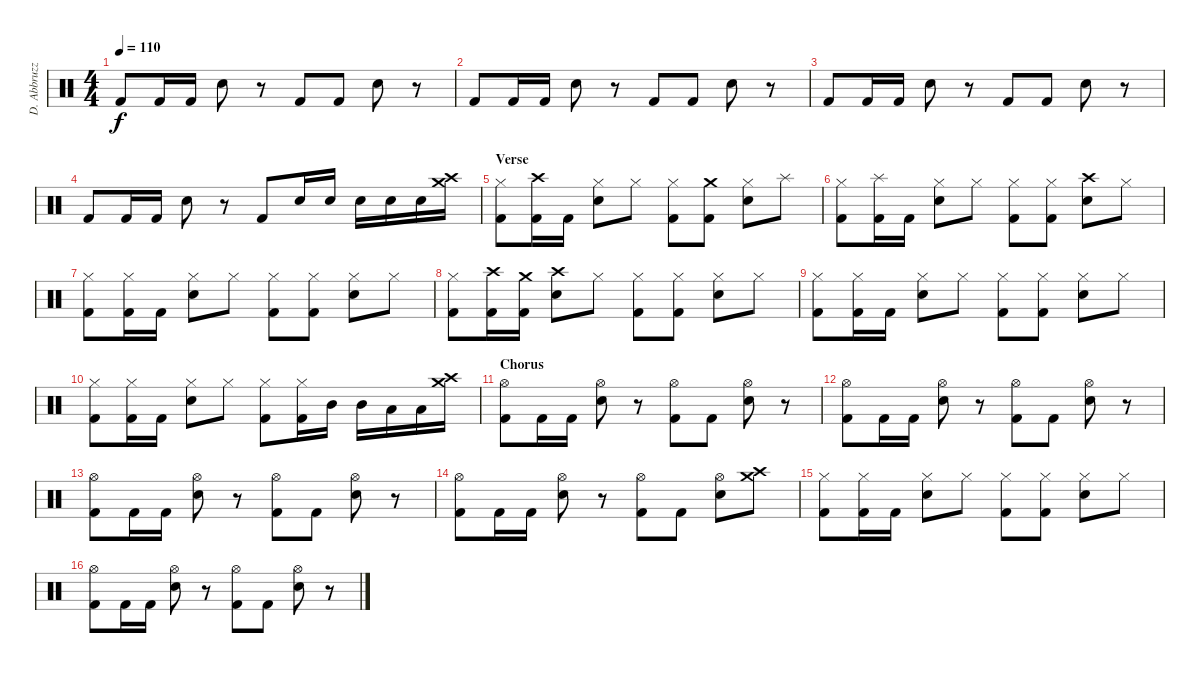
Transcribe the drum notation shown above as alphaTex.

\track ("D. Abbruzzese" "D. Abbruzz") {instrument percussion}
\staff {score}
\articulation defaults
\ts (4 4)
\tempo 110
\clef neutral
\ks c "Kick (hit) 2".8{dy f} "Kick (hit) 2".16 "Kick (hit) 2".16 "Snare (hit) 2".8
r.8 "Kick (hit) 2".8 "Kick (hit) 2".8 "Snare (hit) 2".8 r.8 |
"Kick (hit) 2".8 "Kick (hit) 2".16 "Kick (hit) 2".16 "Snare (hit) 2".8 r.8 "Kick (hit) 2".8 "Kick (hit) 2".8 "Snare (hit) 2".8 r.8 |
"Kick (hit) 2".8 "Kick (hit) 2".16 "Kick (hit) 2".16 "Snare (hit) 2".8 r.8 "Kick (hit) 2".8 "Kick (hit) 2".8 "Snare (hit) 2".8 r.8 |
"Kick (hit) 2".8 "Kick (hit) 2".16 "Kick (hit) 2".16 "Snare (hit) 2".8 r.8 "Kick (hit) 2".8 "Snare (hit) 2".16 "Snare (hit) 2".16 "Snare (hit) 2".16 "Snare (hit) 2".16 "Snare (hit) 2".16 ("Crash high (hit)" "Crash medium (hit)").16 |
\section ("" "Verse")
("Hi-Hat (closed)" "Kick (hit) 2").8 ("Crash high (hit)" "Kick (hit) 2").16 "Kick (hit) 2".16 ("Hi-Hat (closed)" "Snare (hit) 2").8 "Hi-Hat (closed)".8 ("Hi-Hat (closed)" "Kick (hit) 2").8 ("Crash medium (hit)" "Kick (hit) 2").8 ("Hi-Hat (closed)" "Snare (hit) 2").8 "Splash (hit)".8 |
("Hi-Hat (closed)" "Kick (hit) 2").8 ("Splash (hit)" "Kick (hit) 2").16 "Kick (hit) 2".16 ("Hi-Hat (closed)" "Snare (hit) 2").8 "Hi-Hat (closed)".8 ("Hi-Hat (closed)" "Kick (hit) 2").8 ("Hi-Hat (closed)" "Kick (hit) 2").8 ("Crash high (hit)" "Snare (hit) 2").8 "Hi-Hat (closed)".8 |
("Hi-Hat (closed)" "Kick (hit) 2").8 ("Hi-Hat (closed)" "Kick (hit) 2").16 "Kick (hit) 2".16 ("Hi-Hat (closed)" "Snare (hit) 2").8 "Hi-Hat (closed)".8 ("Hi-Hat (closed)" "Kick (hit) 2").8 ("Hi-Hat (closed)" "Kick (hit) 2").8 ("Hi-Hat (closed)" "Snare (hit) 2").8 "Hi-Hat (closed)".8 |
("Hi-Hat (closed)" "Kick (hit) 2").8 ("Crash high (hit)" "Kick (hit) 2").16 ("Crash medium (hit)" "Kick (hit) 2").16 ("Crash high (hit)" "Snare (hit) 2").8 "Hi-Hat (closed)".8 ("Hi-Hat (closed)" "Kick (hit) 2").8 ("Hi-Hat (closed)" "Kick (hit) 2").8 ("Hi-Hat (closed)" "Snare (hit) 2").8 "Hi-Hat (closed)".8 |
("Hi-Hat (closed)" "Kick (hit) 2").8 ("Hi-Hat (closed)" "Kick (hit) 2").16 "Kick (hit) 2".16 ("Hi-Hat (closed)" "Snare (hit) 2").8 "Hi-Hat (closed)".8 ("Hi-Hat (closed)" "Kick (hit) 2").8 ("Hi-Hat (closed)" "Kick (hit) 2").8 ("Hi-Hat (closed)" "Snare (hit) 2").8 "Hi-Hat (closed)".8 |
("Hi-Hat (closed)" "Kick (hit) 2").8 ("Hi-Hat (closed)" "Kick (hit) 2").16 "Kick (hit) 2".16 ("Hi-Hat (closed)" "Snare (hit) 2").8 "Hi-Hat (closed)".8 ("Hi-Hat (closed)" "Kick (hit) 2").8 ("Hi-Hat (closed)" "Kick (hit) 2").16 "Mid Tom (hit)".16 "Mid Tom (hit)".16 "Low Tom (hit)".16 "Low Tom (hit)".16 ("Crash medium (hit)" "Crash high (hit)").16 |
\section ("" "Chorus")
("Hi-Hat (open)" "Kick (hit) 2").8 "Kick (hit) 2".16 "Kick (hit) 2".16 ("Hi-Hat (open)" "Snare (hit) 2").8 r.8 ("Hi-Hat (open)" "Kick (hit) 2").8 "Kick (hit) 2".8 ("Hi-Hat (open)" "Snare (hit) 2").8 r.8 |
("Hi-Hat (open)" "Kick (hit) 2").8 "Kick (hit) 2".16 "Kick (hit) 2".16 ("Hi-Hat (open)" "Snare (hit) 2").8 r.8 ("Hi-Hat (open)" "Kick (hit) 2").8 "Kick (hit) 2".8 ("Hi-Hat (open)" "Snare (hit) 2").8 r.8 |
("Hi-Hat (open)" "Kick (hit) 2").8 "Kick (hit) 2".16 "Kick (hit) 2".16 ("Hi-Hat (open)" "Snare (hit) 2").8 r.8 ("Hi-Hat (open)" "Kick (hit) 2").8 "Kick (hit) 2".8 ("Hi-Hat (open)" "Snare (hit) 2").8 r.8 |
("Hi-Hat (open)" "Kick (hit) 2").8 "Kick (hit) 2".16 "Kick (hit) 2".16 ("Hi-Hat (open)" "Snare (hit) 2").8 r.8 ("Hi-Hat (open)" "Kick (hit) 2").8 "Kick (hit) 2".8 ("Hi-Hat (open)" "Snare (hit) 2").8 ("Crash high (hit)" "Crash medium (hit)").8 |
("Hi-Hat (closed)" "Kick (hit) 2").8 ("Hi-Hat (closed)" "Kick (hit) 2").16 "Kick (hit) 2".16 ("Hi-Hat (closed)" "Snare (hit) 2").8 "Hi-Hat (closed)".8 ("Hi-Hat (closed)" "Kick (hit) 2").8 ("Hi-Hat (closed)" "Kick (hit) 2").8 ("Hi-Hat (closed)" "Snare (hit) 2").8 "Hi-Hat (closed)".8 |
("Hi-Hat (open)" "Kick (hit) 2").8 "Kick (hit) 2".16 "Kick (hit) 2".16 ("Hi-Hat (open)" "Snare (hit) 2").8 r.8 ("Hi-Hat (open)" "Kick (hit) 2").8 "Kick (hit) 2".8 ("Hi-Hat (open)" "Snare (hit) 2").8 r.8
